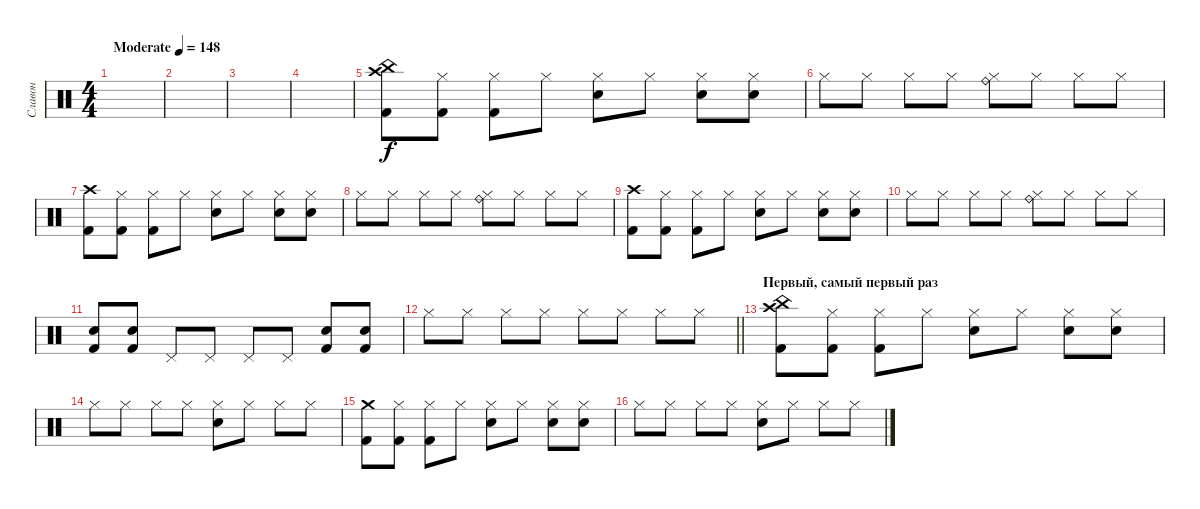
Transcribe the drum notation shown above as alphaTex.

\track ("Славон" "Славон") {instrument percussion}
\staff {score}
\articulation defaults
\ts (4 4)
\tempo (148 "Moderate")
\clef neutral
\ks c
|
|
|
|
("Crash high (hit)" "Kick (hit) 2" "China (hit)").8 ("Hi-Hat (closed)" "Kick (hit) 2").8 ("Hi-Hat (closed)" "Kick (hit) 2").8 "Hi-Hat (closed)".8 ("Hi-Hat (closed)" "Electric Snare (hit)").8 "Hi-Hat (closed)".8 ("Hi-Hat (closed)" "Electric Snare (hit)").8 ("Hi-Hat (closed)" "Electric Snare (hit)").8 |
"Hi-Hat (closed)".8 "Hi-Hat (closed)".8 "Hi-Hat (closed)".8 "Hi-Hat (closed)".8 ("Hi-Hat (closed)" "Ride (bell)").8 "Hi-Hat (closed)".8 "Hi-Hat (closed)".8 "Hi-Hat (closed)".8 |
("Crash high (hit)" "Kick (hit) 2").8 ("Hi-Hat (closed)" "Kick (hit) 2").8 ("Hi-Hat (closed)" "Kick (hit) 2").8 "Hi-Hat (closed)".8 ("Hi-Hat (closed)" "Electric Snare (hit)").8 "Hi-Hat (closed)".8 ("Hi-Hat (closed)" "Electric Snare (hit)").8 ("Hi-Hat (closed)" "Electric Snare (hit)").8 |
"Hi-Hat (closed)".8 "Hi-Hat (closed)".8 "Hi-Hat (closed)".8 "Hi-Hat (closed)".8 ("Hi-Hat (closed)" "Ride (bell)").8 "Hi-Hat (closed)".8 "Hi-Hat (closed)".8 "Hi-Hat (closed)".8 |
("Crash high (hit)" "Kick (hit) 2").8 ("Hi-Hat (closed)" "Kick (hit) 2").8 ("Hi-Hat (closed)" "Kick (hit) 2").8 "Hi-Hat (closed)".8 ("Hi-Hat (closed)" "Electric Snare (hit)").8 "Hi-Hat (closed)".8 ("Hi-Hat (closed)" "Electric Snare (hit)").8 ("Hi-Hat (closed)" "Electric Snare (hit)").8 |
"Hi-Hat (closed)".8 "Hi-Hat (closed)".8 "Hi-Hat (closed)".8 "Hi-Hat (closed)".8 ("Hi-Hat (closed)" "Ride (bell)").8 "Hi-Hat (closed)".8 "Hi-Hat (closed)".8 "Hi-Hat (closed)".8 |
("Electric Snare (hit)" "Kick (hit) 2").8 ("Electric Snare (hit)" "Kick (hit) 2").8 "Pedal Hi-Hat (hit)".8 "Pedal Hi-Hat (hit)".8 "Pedal Hi-Hat (hit)".8 "Pedal Hi-Hat (hit)".8 ("Electric Snare (hit)" "Kick (hit) 2").8 ("Electric Snare (hit)" "Kick (hit) 2").8 |
\barLineRight lightlight "Hi-Hat (closed)".8 "Hi-Hat (closed)".8 "Hi-Hat (closed)".8 "Hi-Hat (closed)".8 "Hi-Hat (closed)".8 "Hi-Hat (closed)".8 "Hi-Hat (closed)".8 "Hi-Hat (closed)".8
|
\section ("" "Первый, самый первый раз")
("Crash high (hit)" "Kick (hit) 2" "China (hit)").8 ("Hi-Hat (closed)" "Kick (hit) 2").8 ("Hi-Hat (closed)" "Kick (hit) 2").8 "Hi-Hat (closed)".8 ("Hi-Hat (closed)" "Electric Snare (hit)").8 "Hi-Hat (closed)".8 ("Hi-Hat (closed)" "Electric Snare (hit)").8 ("Hi-Hat (closed)" "Electric Snare (hit)").8 |
"Hi-Hat (closed)".8 "Hi-Hat (closed)".8 "Hi-Hat (closed)".8 "Hi-Hat (closed)".8 ("Hi-Hat (closed)" "Electric Snare (hit)").8 "Hi-Hat (closed)".8 "Hi-Hat (closed)".8 "Hi-Hat (closed)".8 |
("Crash medium (hit)" "Kick (hit) 2").8 ("Hi-Hat (closed)" "Kick (hit) 2").8 ("Hi-Hat (closed)" "Kick (hit) 2").8 "Hi-Hat (closed)".8 ("Hi-Hat (closed)" "Electric Snare (hit)").8 "Hi-Hat (closed)".8 ("Hi-Hat (closed)" "Electric Snare (hit)").8 ("Hi-Hat (closed)" "Electric Snare (hit)").8 |
"Hi-Hat (closed)".8 "Hi-Hat (closed)".8 "Hi-Hat (closed)".8 "Hi-Hat (closed)".8 ("Hi-Hat (closed)" "Electric Snare (hit)").8 "Hi-Hat (closed)".8 "Hi-Hat (closed)".8 "Hi-Hat (closed)".8
